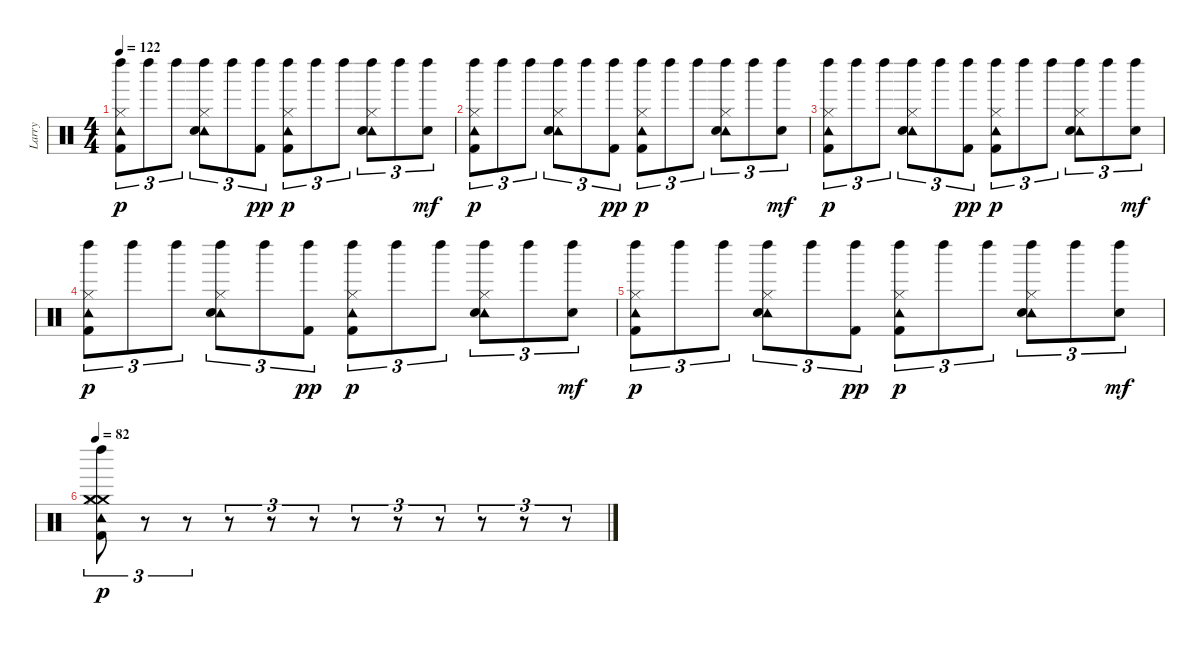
\track ("Larry" "Larry") {instrument percussion}
\staff {score}
\articulation defaults
\ts (4 4)
\tempo 122
\clef neutral
\ks c
("Left Maraca (hit)" "Tambourine (hit)" "Hi-Hat (closed)" "Kick (hit) 2").8{tu (3 2) dy p} "Left Maraca (hit)".8{tu (3 2)} "Left Maraca (hit)".8{tu (3 2)} ("Left Maraca (hit)" "Tambourine (hit)" "Hi-Hat (closed)" "Snare (hit) 2").8{tu (3 2)} "Left Maraca (hit)".8{tu (3 2)} ("Left Maraca (hit)" "Kick (hit) 2").8{tu (3 2) dy pp} ("Left Maraca (hit)" "Tambourine (hit)" "Hi-Hat (closed)" "Kick (hit) 2").8{tu (3 2) dy p} "Left Maraca (hit)".8{tu (3 2)} "Left Maraca (hit)".8{tu (3 2)} ("Left Maraca (hit)" "Tambourine (hit)" "Hi-Hat (closed)" "Snare (hit) 2").8{tu (3 2)} "Left Maraca (hit)".8{tu (3 2)} ("Left Maraca (hit)" "Snare (hit) 2").8{tu (3 2) dy mf} |
("Left Maraca (hit)" "Tambourine (hit)" "Hi-Hat (closed)" "Kick (hit) 2").8{tu (3 2) dy p} "Left Maraca (hit)".8{tu (3 2)} "Left Maraca (hit)".8{tu (3 2)} ("Left Maraca (hit)" "Tambourine (hit)" "Hi-Hat (closed)" "Snare (hit) 2").8{tu (3 2)} "Left Maraca (hit)".8{tu (3 2)} ("Left Maraca (hit)" "Kick (hit) 2").8{tu (3 2) dy pp} ("Left Maraca (hit)" "Tambourine (hit)" "Hi-Hat (closed)" "Kick (hit) 2").8{tu (3 2) dy p} "Left Maraca (hit)".8{tu (3 2)} "Left Maraca (hit)".8{tu (3 2)} ("Left Maraca (hit)" "Tambourine (hit)" "Hi-Hat (closed)" "Snare (hit) 2").8{tu (3 2)} "Left Maraca (hit)".8{tu (3 2)} ("Left Maraca (hit)" "Snare (hit) 2").8{tu (3 2) dy mf} |
("Left Maraca (hit)" "Tambourine (hit)" "Hi-Hat (closed)" "Kick (hit) 2").8{tu (3 2) dy p} "Left Maraca (hit)".8{tu (3 2)} "Left Maraca (hit)".8{tu (3 2)} ("Left Maraca (hit)" "Tambourine (hit)" "Hi-Hat (closed)" "Snare (hit) 2").8{tu (3 2)} "Left Maraca (hit)".8{tu (3 2)} ("Left Maraca (hit)" "Kick (hit) 2").8{tu (3 2) dy pp} ("Left Maraca (hit)" "Tambourine (hit)" "Hi-Hat (closed)" "Kick (hit) 2").8{tu (3 2) dy p} "Left Maraca (hit)".8{tu (3 2)} "Left Maraca (hit)".8{tu (3 2)} ("Left Maraca (hit)" "Tambourine (hit)" "Hi-Hat (closed)" "Snare (hit) 2").8{tu (3 2)} "Left Maraca (hit)".8{tu (3 2)} ("Left Maraca (hit)" "Snare (hit) 2").8{tu (3 2) dy mf} |
("Left Maraca (hit)" "Tambourine (hit)" "Hi-Hat (closed)" "Kick (hit) 2").8{tu (3 2) dy p} "Left Maraca (hit)".8{tu (3 2)} "Left Maraca (hit)".8{tu (3 2)} ("Left Maraca (hit)" "Tambourine (hit)" "Hi-Hat (closed)" "Snare (hit) 2").8{tu (3 2)} "Left Maraca (hit)".8{tu (3 2)} ("Left Maraca (hit)" "Kick (hit) 2").8{tu (3 2) dy pp} ("Left Maraca (hit)" "Tambourine (hit)" "Hi-Hat (closed)" "Kick (hit) 2").8{tu (3 2) dy p} "Left Maraca (hit)".8{tu (3 2)} "Left Maraca (hit)".8{tu (3 2)} ("Left Maraca (hit)" "Tambourine (hit)" "Hi-Hat (closed)" "Snare (hit) 2").8{tu (3 2)} "Left Maraca (hit)".8{tu (3 2)} ("Left Maraca (hit)" "Snare (hit) 2").8{tu (3 2) dy mf} |
("Left Maraca (hit)" "Tambourine (hit)" "Hi-Hat (closed)" "Kick (hit) 2").8{tu (3 2) dy p} "Left Maraca (hit)".8{tu (3 2)} "Left Maraca (hit)".8{tu (3 2)} ("Left Maraca (hit)" "Tambourine (hit)" "Hi-Hat (closed)" "Snare (hit) 2").8{tu (3 2)} "Left Maraca (hit)".8{tu (3 2)} ("Left Maraca (hit)" "Kick (hit) 2").8{tu (3 2) dy pp} ("Left Maraca (hit)" "Tambourine (hit)" "Hi-Hat (closed)" "Kick (hit) 2").8{tu (3 2) dy p} "Left Maraca (hit)".8{tu (3 2)} "Left Maraca (hit)".8{tu (3 2)} ("Left Maraca (hit)" "Tambourine (hit)" "Hi-Hat (closed)" "Snare (hit) 2").8{tu (3 2)} "Left Maraca (hit)".8{tu (3 2)} ("Left Maraca (hit)" "Snare (hit) 2").8{tu (3 2) dy mf} |
\tempo 82
("Left Maraca (hit)" "Crash medium (hit)" "Tambourine (hit)" "Hi-Hat (closed)" "Crash medium (hit)" "Kick (hit) 2").8{tu (3 2) dy p} r.8{tu (3 2)} r.8{tu (3 2)} r.8{tu (3 2)} r.8{tu (3 2)} r.8{tu (3 2)} r.8{tu (3 2)} r.8{tu (3 2)} r.8{tu (3 2)} r.8{tu (3 2)} r.8{tu (3 2)} r.8{tu (3 2)}
